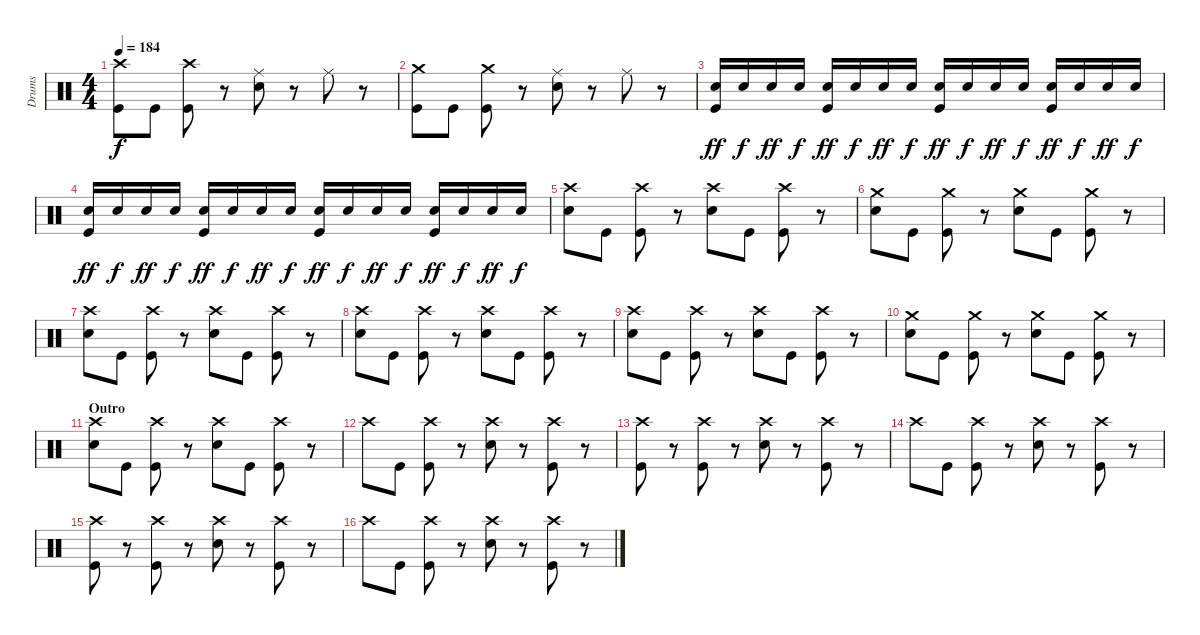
\track ("Drums" "Drums") {instrument percussion}
\staff {score}
\articulation defaults
\ts (4 4)
\tempo 184
\clef neutral
\ks c
("Crash high (hit)" "Kick (hit)").8{dy f} "Kick (hit)".8 ("Crash high (hit)" "Kick (hit)").8 r.8 ("Ride (middle)" "Snare (hit) 2").8 r.8 "Ride (middle)".8 r.8 |
("Crash medium (hit)" "Kick (hit)").8 "Kick (hit)".8 ("Crash medium (hit)" "Kick (hit)").8 r.8 ("Ride (middle)" "Snare (hit) 2").8 r.8 "Ride (middle)".8 r.8 |
("Snare (hit) 2" "Kick (hit)").16{dy ff} "Snare (hit) 2".16{dy f} "Snare (hit) 2".16{dy ff} "Snare (hit) 2".16{dy f} ("Snare (hit) 2" "Kick (hit)").16{dy ff} "Snare (hit) 2".16{dy f} "Snare (hit) 2".16{dy ff} "Snare (hit) 2".16{dy f} ("Snare (hit) 2" "Kick (hit)").16{dy ff} "Snare (hit) 2".16{dy f} "Snare (hit) 2".16{dy ff} "Snare (hit) 2".16{dy f} ("Snare (hit) 2" "Kick (hit)").16{dy ff} "Snare (hit) 2".16{dy f} "Snare (hit) 2".16{dy ff} "Snare (hit) 2".16{dy f} |
("Snare (hit) 2" "Kick (hit)").16{dy ff} "Snare (hit) 2".16{dy f} "Snare (hit) 2".16{dy ff} "Snare (hit) 2".16{dy f} ("Snare (hit) 2" "Kick (hit)").16{dy ff} "Snare (hit) 2".16{dy f} "Snare (hit) 2".16{dy ff} "Snare (hit) 2".16{dy f} ("Snare (hit) 2" "Kick (hit)").16{dy ff} "Snare (hit) 2".16{dy f} "Snare (hit) 2".16{dy ff} "Snare (hit) 2".16{dy f} ("Snare (hit) 2" "Kick (hit)").16{dy ff} "Snare (hit) 2".16{dy f} "Snare (hit) 2".16{dy ff} "Snare (hit) 2".16{dy f} |
("Crash high (hit)" "Snare (hit) 2").8 "Kick (hit)".8 ("Crash high (hit)" "Kick (hit)").8 r.8 ("Crash high (hit)" "Snare (hit) 2").8 "Kick (hit)".8 ("Crash high (hit)" "Kick (hit)").8 r.8 |
("Crash medium (hit)" "Snare (hit) 2").8 "Kick (hit)".8 ("Crash medium (hit)" "Kick (hit)").8 r.8 ("Crash medium (hit)" "Snare (hit) 2").8 "Kick (hit)".8 ("Crash medium (hit)" "Kick (hit)").8 r.8 |
("Crash high (hit)" "Snare (hit) 2").8 "Kick (hit)".8 ("Crash high (hit)" "Kick (hit)").8 r.8 ("Crash high (hit)" "Snare (hit) 2").8 "Kick (hit)".8 ("Crash high (hit)" "Kick (hit)").8 r.8 |
("Crash high (hit)" "Snare (hit) 2").8 "Kick (hit)".8 ("Crash high (hit)" "Kick (hit)").8 r.8 ("Crash high (hit)" "Snare (hit) 2").8 "Kick (hit)".8 ("Crash high (hit)" "Kick (hit)").8 r.8 |
("Crash high (hit)" "Snare (hit) 2").8 "Kick (hit)".8 ("Crash high (hit)" "Kick (hit)").8 r.8 ("Crash high (hit)" "Snare (hit) 2").8 "Kick (hit)".8 ("Crash high (hit)" "Kick (hit)").8 r.8 |
("Crash medium (hit)" "Snare (hit) 2").8 "Kick (hit)".8 ("Crash medium (hit)" "Kick (hit)").8 r.8 ("Crash medium (hit)" "Snare (hit) 2").8 "Kick (hit)".8 ("Crash medium (hit)" "Kick (hit)").8 r.8 |
\section ("" "Outro")
("Crash high (hit)" "Snare (hit) 2").8 "Kick (hit)".8 ("Crash high (hit)" "Kick (hit)").8 r.8 ("Crash high (hit)" "Snare (hit) 2").8 "Kick (hit)".8 ("Crash high (hit)" "Kick (hit)").8 r.8 |
"Crash high (hit)".8 "Kick (hit)".8 ("Crash high (hit)" "Kick (hit)").8 r.8 ("Crash high (hit)" "Snare (hit) 2").8 r.8 ("Crash high (hit)" "Kick (hit)").8 r.8 |
("Crash high (hit)" "Kick (hit)").8 r.8 ("Crash high (hit)" "Kick (hit)").8 r.8 ("Crash high (hit)" "Snare (hit) 2").8 r.8 ("Crash high (hit)" "Kick (hit)").8 r.8 |
"Crash high (hit)".8 "Kick (hit)".8 ("Crash high (hit)" "Kick (hit)").8 r.8 ("Crash high (hit)" "Snare (hit) 2").8 r.8 ("Crash high (hit)" "Kick (hit)").8 r.8 |
("Crash high (hit)" "Kick (hit)").8 r.8 ("Crash high (hit)" "Kick (hit)").8 r.8 ("Crash high (hit)" "Snare (hit) 2").8 r.8 ("Crash high (hit)" "Kick (hit)").8 r.8 |
"Crash high (hit)".8 "Kick (hit)".8 ("Crash high (hit)" "Kick (hit)").8 r.8 ("Crash high (hit)" "Snare (hit) 2").8 r.8 ("Crash high (hit)" "Kick (hit)").8 r.8
